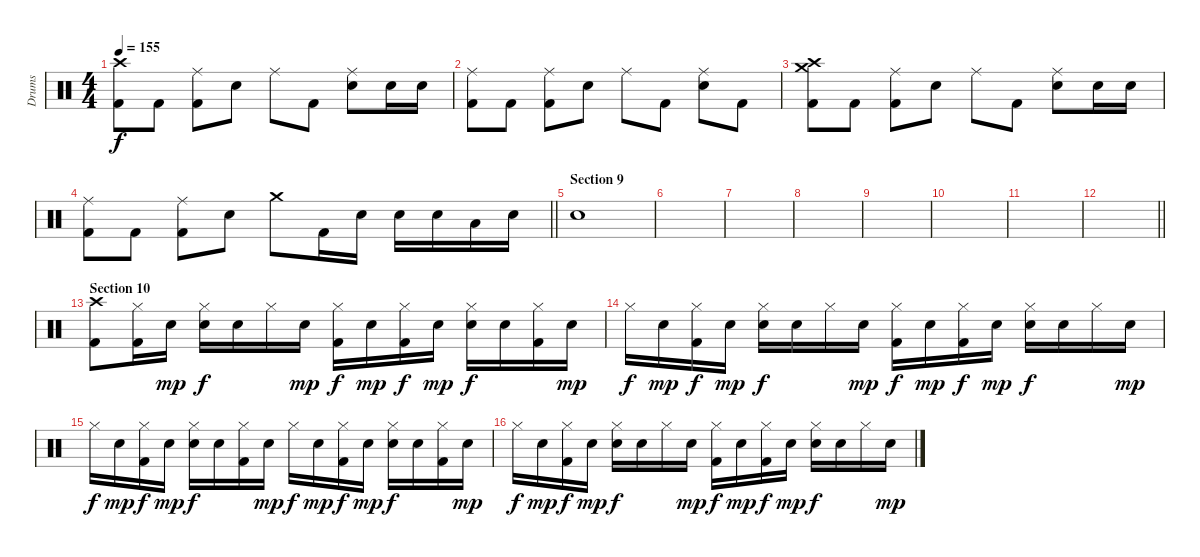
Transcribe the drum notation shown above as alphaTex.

\track ("Drums" "Drums") {instrument percussion}
\staff {score}
\articulation defaults
\ts (4 4)
\tempo 155
\clef neutral
\ks c
("Crash high (hit)" "Kick (hit) 2").8{dy f} "Kick (hit) 2".8 ("Ride (middle)" "Kick (hit) 2").8 "Electric Snare (hit)".8 "Ride (middle)".8 "Kick (hit) 2".8 ("Ride (middle)" "Electric Snare (hit)").8 "Electric Snare (hit)".16 "Electric Snare (hit)".16 |
("Ride (middle)" "Kick (hit) 2").8 "Kick (hit) 2".8 ("Ride (middle)" "Kick (hit) 2").8 "Electric Snare (hit)".8 "Ride (middle)".8 "Kick (hit) 2".8 ("Ride (middle)" "Electric Snare (hit)").8 "Kick (hit) 2".8 |
("Crash high (hit)" "Crash medium (hit)" "Kick (hit) 2").8 "Kick (hit) 2".8 ("Ride (middle)" "Kick (hit) 2").8 "Electric Snare (hit)".8 "Ride (middle)".8 "Kick (hit) 2".8 ("Ride (middle)" "Electric Snare (hit)").8 "Electric Snare (hit)".16 "Electric Snare (hit)".16 |
\barLineRight lightlight
("Ride (middle)" "Kick (hit) 2").8 "Kick (hit) 2".8 ("Ride (middle)" "Kick (hit) 2").8 "Electric Snare (hit)".8 "Crash medium (hit)".8 "Kick (hit) 2".16 "Electric Snare (hit)".16 "Electric Snare (hit)".16 "Electric Snare (hit)".16 "Low Tom (hit)".16 "Electric Snare (hit)".16 |
\section ("" "Section 9")
"Electric Snare (hit)".1 |
|
|
|
|
|
|
\barLineRight lightlight
|
\section ("" "Section 10")
("Crash high (hit)" "Kick (hit) 2").8 ("Hi-Hat (closed)" "Kick (hit) 2").16 "Electric Snare (hit)".16{dy mp} ("Hi-Hat (closed)" "Electric Snare (hit)").16{dy f} "Electric Snare (hit)".16 "Hi-Hat (closed)".16 "Electric Snare (hit)".16{dy mp} ("Hi-Hat (closed)" "Kick (hit) 2").16{dy f} "Electric Snare (hit)".16{dy mp} ("Hi-Hat (closed)" "Kick (hit) 2").16{dy f} "Electric Snare (hit)".16{dy mp} ("Hi-Hat (closed)" "Electric Snare (hit)").16{dy f} "Electric Snare (hit)".16 ("Hi-Hat (closed)" "Kick (hit) 2").16 "Electric Snare (hit)".16{dy mp} |
"Hi-Hat (closed)".16{dy f} "Electric Snare (hit)".16{dy mp} ("Hi-Hat (closed)" "Kick (hit) 2").16{dy f} "Electric Snare (hit)".16{dy mp} ("Hi-Hat (closed)" "Electric Snare (hit)").16{dy f} "Electric Snare (hit)".16 "Hi-Hat (closed)".16 "Electric Snare (hit)".16{dy mp} ("Hi-Hat (closed)" "Kick (hit) 2").16{dy f} "Electric Snare (hit)".16{dy mp} ("Hi-Hat (closed)" "Kick (hit) 2").16{dy f} "Electric Snare (hit)".16{dy mp} ("Hi-Hat (closed)" "Electric Snare (hit)").16{dy f} "Electric Snare (hit)".16 "Hi-Hat (closed)".16 "Electric Snare (hit)".16{dy mp} |
"Hi-Hat (closed)".16{dy f} "Electric Snare (hit)".16{dy mp} ("Hi-Hat (closed)" "Kick (hit) 2").16{dy f} "Electric Snare (hit)".16{dy mp} ("Hi-Hat (closed)" "Electric Snare (hit)").16{dy f} "Electric Snare (hit)".16 ("Hi-Hat (closed)" "Kick (hit) 2").16 "Electric Snare (hit)".16{dy mp} "Hi-Hat (closed)".16{dy f} "Electric Snare (hit)".16{dy mp} ("Hi-Hat (closed)" "Kick (hit) 2").16{dy f} "Electric Snare (hit)".16{dy mp} ("Hi-Hat (closed)" "Electric Snare (hit)").16{dy f} "Electric Snare (hit)".16 ("Hi-Hat (closed)" "Kick (hit) 2").16 "Electric Snare (hit)".16{dy mp} |
"Hi-Hat (closed)".16{dy f} "Electric Snare (hit)".16{dy mp} ("Hi-Hat (closed)" "Kick (hit) 2").16{dy f} "Electric Snare (hit)".16{dy mp} ("Hi-Hat (closed)" "Electric Snare (hit)").16{dy f} "Electric Snare (hit)".16 "Hi-Hat (closed)".16 "Electric Snare (hit)".16{dy mp} ("Hi-Hat (closed)" "Kick (hit) 2").16{dy f} "Electric Snare (hit)".16{dy mp} ("Hi-Hat (closed)" "Kick (hit) 2").16{dy f} "Electric Snare (hit)".16{dy mp} ("Hi-Hat (closed)" "Electric Snare (hit)").16{dy f} "Electric Snare (hit)".16 "Hi-Hat (closed)".16 "Electric Snare (hit)".16{dy mp}
